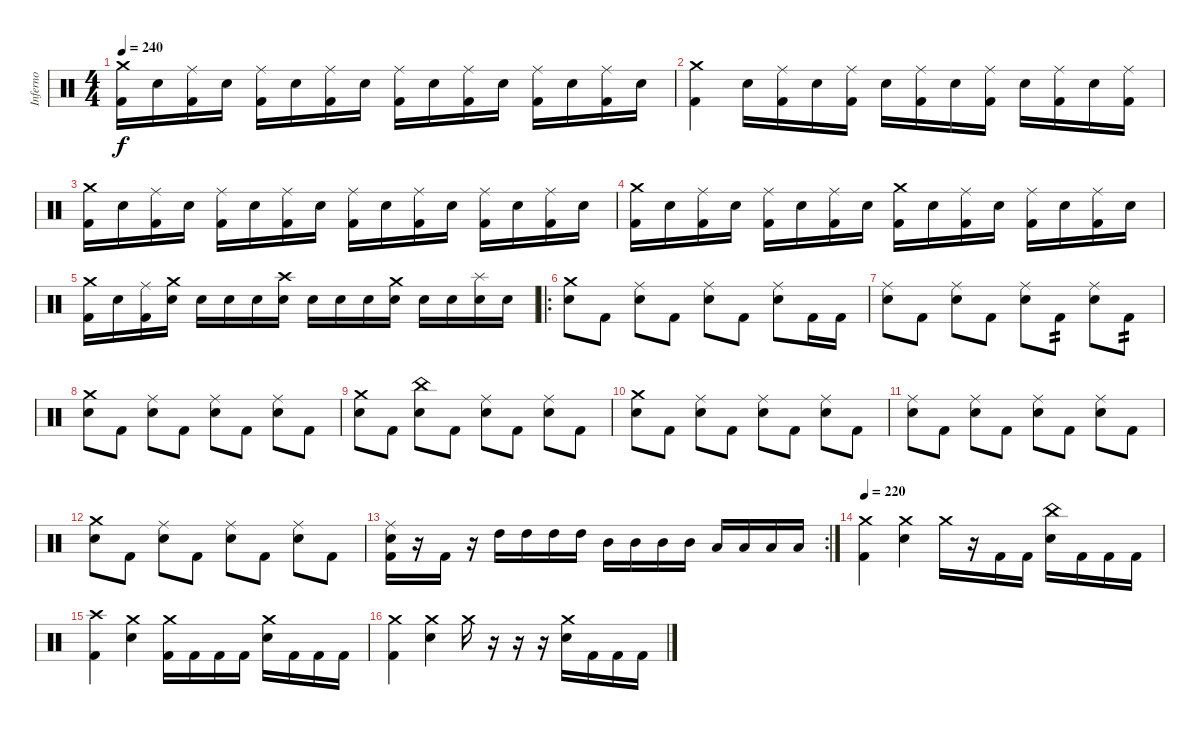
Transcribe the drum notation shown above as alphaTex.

\track ("Inferno" "Inferno") {instrument percussion}
\staff {score}
\articulation defaults
\ts (4 4)
\tempo 240
\clef neutral
\ks c
("Crash medium (hit)" "Kick (hit) 2").16{dy f} "Snare (hit) 2".16 ("Ride (middle)" "Kick (hit) 2").16 "Snare (hit) 2".16 ("Ride (middle)" "Kick (hit) 2").16 "Snare (hit) 2".16 ("Ride (middle)" "Kick (hit) 2").16 "Snare (hit) 2".16 ("Ride (middle)" "Kick (hit) 2").16 "Snare (hit) 2".16 ("Ride (middle)" "Kick (hit) 2").16 "Snare (hit) 2".16 ("Ride (middle)" "Kick (hit) 2").16 "Snare (hit) 2".16 ("Ride (middle)" "Kick (hit) 2").16 "Snare (hit) 2".16 |
("Crash medium (hit)" "Kick (hit) 2").4 "Snare (hit) 2".16 ("Ride (middle)" "Kick (hit) 2").16 "Snare (hit) 2".16 ("Ride (middle)" "Kick (hit) 2").16 "Snare (hit) 2".16 ("Ride (middle)" "Kick (hit) 2").16 "Snare (hit) 2".16 ("Ride (middle)" "Kick (hit) 2").16 "Snare (hit) 2".16 ("Ride (middle)" "Kick (hit) 2").16 "Snare (hit) 2".16 ("Ride (middle)" "Kick (hit) 2").16 |
("Crash medium (hit)" "Kick (hit) 2").16 "Snare (hit) 2".16 ("Ride (middle)" "Kick (hit) 2").16 "Snare (hit) 2".16 ("Ride (middle)" "Kick (hit) 2").16 "Snare (hit) 2".16 ("Ride (middle)" "Kick (hit) 2").16 "Snare (hit) 2".16 ("Ride (middle)" "Kick (hit) 2").16 "Snare (hit) 2".16 ("Ride (middle)" "Kick (hit) 2").16 "Snare (hit) 2".16 ("Ride (middle)" "Kick (hit) 2").16 "Snare (hit) 2".16 ("Ride (middle)" "Kick (hit) 2").16 "Snare (hit) 2".16 |
("Crash medium (hit)" "Kick (hit) 2").16 "Snare (hit) 2".16 ("Ride (middle)" "Kick (hit) 2").16 "Snare (hit) 2".16 ("Ride (middle)" "Kick (hit) 2").16 "Snare (hit) 2".16 ("Ride (middle)" "Kick (hit) 2").16 "Snare (hit) 2".16 ("Crash medium (hit)" "Kick (hit) 2").16 "Snare (hit) 2".16 ("Ride (middle)" "Kick (hit) 2").16 "Snare (hit) 2".16 ("Ride (middle)" "Kick (hit) 2").16 "Snare (hit) 2".16 ("Ride (middle)" "Kick (hit) 2").16 "Snare (hit) 2".16 |
("Crash medium (hit)" "Kick (hit) 2").16 "Snare (hit) 2".16 ("Ride (middle)" "Kick (hit) 2").16 ("Crash medium (hit)" "Snare (hit) 2").16 "Snare (hit) 2".16 "Snare (hit) 2".16 "Snare (hit) 2".16 ("Crash high (hit)" "Snare (hit) 2").16 "Snare (hit) 2".16 "Snare (hit) 2".16 "Snare (hit) 2".16 ("Crash medium (hit)" "Snare (hit) 2").16 "Snare (hit) 2".16 "Snare (hit) 2".16 ("Splash (hit)" "Snare (hit) 2").16 "Snare (hit) 2".16 |
\ro
("Crash medium (hit)" "Snare (hit) 2").8 "Kick (hit) 2".8 ("Ride (middle)" "Snare (hit) 2").8 "Kick (hit) 2".8 ("Ride (middle)" "Snare (hit) 2").8 "Kick (hit) 2".8 ("Ride (middle)" "Snare (hit) 2").8 "Kick (hit) 2".16 "Kick (hit) 2".16 |
("Ride (middle)" "Snare (hit) 2").8 "Kick (hit) 2".8 ("Ride (middle)" "Snare (hit) 2").8 "Kick (hit) 2".8 ("Ride (middle)" "Snare (hit) 2").8 "Kick (hit) 2".8{tp 2} ("Ride (middle)" "Snare (hit) 2").8 "Kick (hit) 2".8{tp 2} |
("Crash medium (hit)" "Snare (hit) 2").8 "Kick (hit) 2".8 ("Ride (middle)" "Snare (hit) 2").8 "Kick (hit) 2".8 ("Ride (middle)" "Snare (hit) 2").8 "Kick (hit) 2".8 ("Ride (middle)" "Snare (hit) 2").8 "Kick (hit) 2".8 |
("Crash medium (hit)" "Snare (hit) 2").8 "Kick (hit) 2".8 ("China (hit)" "Snare (hit) 2").8 "Kick (hit) 2".8 ("Ride (middle)" "Snare (hit) 2").8 "Kick (hit) 2".8 ("Ride (middle)" "Snare (hit) 2").8 "Kick (hit) 2".8 |
("Crash medium (hit)" "Snare (hit) 2").8 "Kick (hit) 2".8 ("Ride (middle)" "Snare (hit) 2").8 "Kick (hit) 2".8 ("Ride (middle)" "Snare (hit) 2").8 "Kick (hit) 2".8 ("Ride (middle)" "Snare (hit) 2").8 "Kick (hit) 2".8 |
("Ride (middle)" "Snare (hit) 2").8 "Kick (hit) 2".8 ("Ride (middle)" "Snare (hit) 2").8 "Kick (hit) 2".8 ("Ride (middle)" "Snare (hit) 2").8 "Kick (hit) 2".8 ("Ride (middle)" "Snare (hit) 2").8 "Kick (hit) 2".8 |
("Crash medium (hit)" "Snare (hit) 2").8 "Kick (hit) 2".8 ("Ride (middle)" "Snare (hit) 2").8 "Kick (hit) 2".8 ("Ride (middle)" "Snare (hit) 2").8 "Kick (hit) 2".8 ("Ride (middle)" "Snare (hit) 2").8 "Kick (hit) 2".8 |
\rc 2
("Ride (middle)" "Snare (hit) 2" "Kick (hit) 2").16 r.16 "Kick (hit) 2".16 r.16 "High Tom (hit)".16 "High Tom (hit)".16 "High Tom (hit)".16 "High Tom (hit)".16 "Mid Tom (hit)".16 "Mid Tom (hit)".16 "Mid Tom (hit)".16 "Mid Tom (hit)".16 "Low Tom (hit)".16 "Low Tom (hit)".16 "Low Tom (hit)".16 "Low Tom (hit)".16 |
\tempo 220
("Crash medium (hit)" "Kick (hit) 2").4 ("Crash medium (hit)" "Snare (hit) 2").4 "Crash medium (hit)".16 r.16 "Kick (hit) 2".16 "Kick (hit) 2".16 ("China (hit)" "Snare (hit) 2").16 "Kick (hit) 2".16 "Kick (hit) 2".16 "Kick (hit) 2".16 |
("Crash high (hit)" "Kick (hit) 2").4 ("Crash medium (hit)" "Snare (hit) 2").4 ("Crash medium (hit)" "Kick (hit) 2").16 "Kick (hit) 2".16 "Kick (hit) 2".16 "Kick (hit) 2".16 ("Crash medium (hit)" "Snare (hit) 2").16 "Kick (hit) 2".16 "Kick (hit) 2".16 "Kick (hit) 2".16 |
("Crash medium (hit)" "Kick (hit) 2").4 ("Crash medium (hit)" "Snare (hit) 2").4 "Crash medium (hit)".16 r.16 r.16 r.16 ("Crash medium (hit)" "Snare (hit) 2").16 "Kick (hit) 2".16 "Kick (hit) 2".16 "Kick (hit) 2".16
